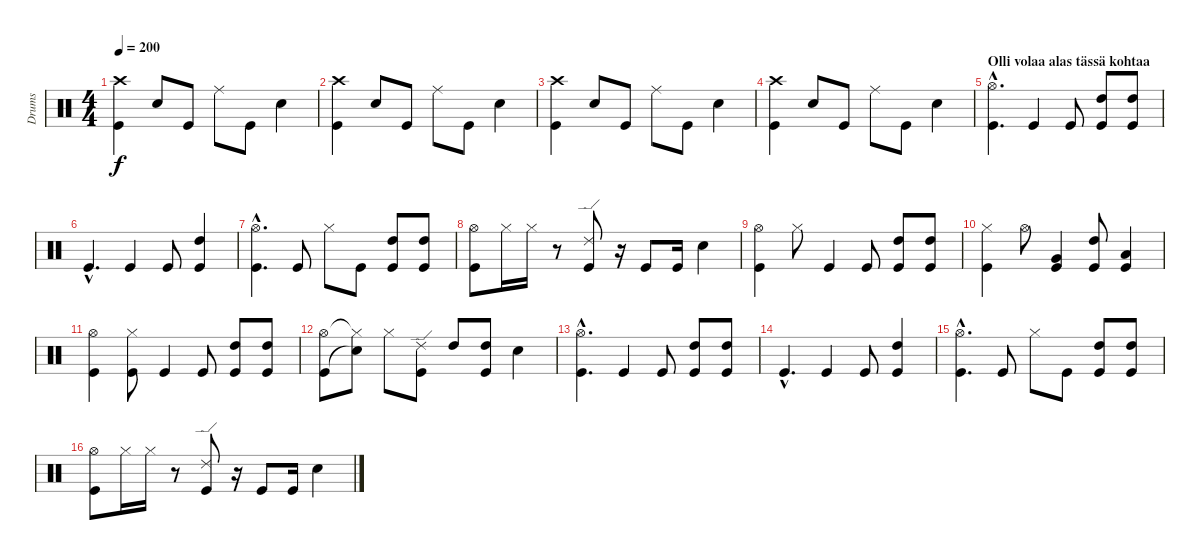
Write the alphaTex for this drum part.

\track ("Drums" "Drums") {instrument percussion}
\staff {score}
\articulation defaults
\ts (4 4)
\tempo 200
\clef neutral
\ks c
("Crash high (hit)" "Kick (hit)").4{dy f} "Snare (hit) 2".8 "Kick (hit)".8 "Ride (middle)".8 "Kick (hit)".8 "Snare (hit) 2".4 |
("Crash high (hit)" "Kick (hit)").4 "Snare (hit) 2".8 "Kick (hit)".8 "Ride (middle)".8 "Kick (hit)".8 "Snare (hit) 2".4 |
("Crash high (hit)" "Kick (hit)").4 "Snare (hit) 2".8 "Kick (hit)".8 "Ride (middle)".8 "Kick (hit)".8 "Snare (hit) 2".4 |
("Crash high (hit)" "Kick (hit)").4 "Snare (hit) 2".8 "Kick (hit)".8 "Ride (middle)".8 "Kick (hit)".8 "Snare (hit) 2".4 |
\section ("" "Olli volaa alas tässä kohtaa")
("Hi-Hat (open)"{hac} "Kick (hit)"{hac}).4{d} "Kick (hit)".4 "Kick (hit)".8 ("High Tom (hit)" "Kick (hit)").8 ("High Tom (hit)" "Kick (hit)").8 |
"Kick (hit)"{hac}.4{d} "Kick (hit)".4 "Kick (hit)".8 ("High Tom (hit)" "Kick (hit)").4 |
("Hi-Hat (open)"{hac} "Kick (hit)"{hac}).4{d} "Kick (hit)".8 "Hi-Hat (closed)".8 "Kick (hit)".8 ("High Tom (hit)" "Kick (hit)").8 ("High Tom (hit)" "Kick (hit)").8 |
("Hi-Hat (open)" "Kick (hit)").8 "Hi-Hat (closed)".16 "Hi-Hat (closed)".16 r.8 ("Ride (edge) 2" "Kick (hit)").8 r.16 "Kick (hit)".8 "Kick (hit)".16 "Snare (hit) 2".4 |
("Hi-Hat (open)" "Kick (hit)").4 "Hi-Hat (closed)".8 "Kick (hit)".4 "Kick (hit)".8 ("High Tom (hit)" "Kick (hit)").8 ("High Tom (hit)" "Kick (hit)").8 |
("Hi-Hat (closed)" "Kick (hit)").4 "Hi-Hat (open)".8 ("Very Low Tom (hit)" "Kick (hit)").4 ("High Tom (hit)" "Kick (hit)").8 ("Low Tom (hit)" "Kick (hit)").4 |
("Hi-Hat (open)" "Kick (hit)").4 ("Hi-Hat (closed)" "Kick (hit)").8 "Kick (hit)".4 "Kick (hit)".8 ("High Tom (hit)" "Kick (hit)").8 ("High Tom (hit)" "Kick (hit)").8 |
("Hi-Hat (open)" "Kick (hit)").8 ("Hi-Hat (closed)"{t} "Snare (hit)"{t}).8 "Hi-Hat (closed)".8 ("Ride (edge) 2" "Kick (hit)").8 "High Tom (hit)".8 ("High Tom (hit)" "Kick (hit)").8 "Snare (hit) 2".4 |
("Hi-Hat (open)"{hac} "Kick (hit)"{hac}).4{d} "Kick (hit)".4 "Kick (hit)".8 ("High Tom (hit)" "Kick (hit)").8 ("High Tom (hit)" "Kick (hit)").8 |
"Kick (hit)"{hac}.4{d} "Kick (hit)".4 "Kick (hit)".8 ("High Tom (hit)" "Kick (hit)").4 |
("Hi-Hat (open)"{hac} "Kick (hit)"{hac}).4{d} "Kick (hit)".8 "Hi-Hat (closed)".8 "Kick (hit)".8 ("High Tom (hit)" "Kick (hit)").8 ("High Tom (hit)" "Kick (hit)").8 |
("Hi-Hat (open)" "Kick (hit)").8 "Hi-Hat (closed)".16 "Hi-Hat (closed)".16 r.8 ("Ride (edge) 2" "Kick (hit)").8 r.16 "Kick (hit)".8 "Kick (hit)".16 "Snare (hit) 2".4
